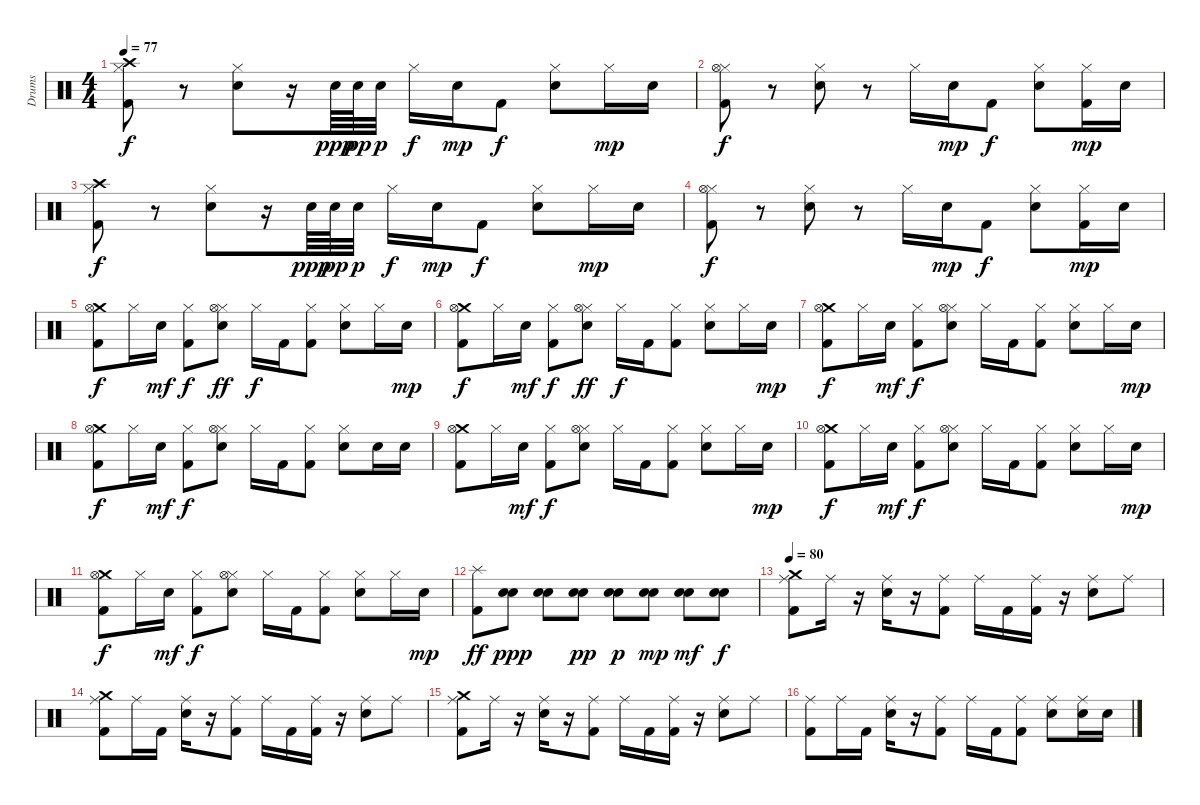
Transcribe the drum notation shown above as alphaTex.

\track ("Drums" "Drums") {instrument percussion}
\staff {score}
\articulation defaults
\ts (4 4)
\tempo 77
\clef neutral
\ks c
("Hi-Hat (closed)" "Crash high (hit)" "Kick (hit) 2").8{dy f} r.8 ("Hi-Hat (closed)" "Electric Snare (hit)").8 r.16 "Electric Snare (hit)".64{dy ppp} "Electric Snare (hit)".64{dy pp} "Electric Snare (hit)".32{dy p} "Hi-Hat (closed)".16{dy f} "Electric Snare (hit)".16{dy mp} "Kick (hit) 2".8{dy f} ("Hi-Hat (closed)" "Electric Snare (hit)").8 "Hi-Hat (closed)".16{dy mp} "Electric Snare (hit)".16 |
("Hi-Hat (closed)" "Hi-Hat (open)" "Kick (hit) 2").8{dy f} r.8 ("Hi-Hat (closed)" "Electric Snare (hit)").8 r.8 "Hi-Hat (closed)".16 "Electric Snare (hit)".16{dy mp} "Kick (hit) 2".8{dy f} ("Hi-Hat (closed)" "Electric Snare (hit)").8 ("Hi-Hat (closed)" "Kick (hit) 2").16{dy mp} "Electric Snare (hit)".16 |
("Hi-Hat (closed)" "Crash high (hit)" "Kick (hit) 2").8{dy f} r.8 ("Hi-Hat (closed)" "Electric Snare (hit)").8 r.16 "Electric Snare (hit)".64{dy ppp} "Electric Snare (hit)".64{dy pp} "Electric Snare (hit)".32{dy p} "Hi-Hat (closed)".16{dy f} "Electric Snare (hit)".16{dy mp} "Kick (hit) 2".8{dy f} ("Hi-Hat (closed)" "Electric Snare (hit)").8 "Hi-Hat (closed)".16{dy mp} "Electric Snare (hit)".16 |
("Hi-Hat (closed)" "Hi-Hat (open)" "Kick (hit) 2").8{dy f} r.8 ("Hi-Hat (closed)" "Electric Snare (hit)").8 r.8 "Hi-Hat (closed)".16 "Electric Snare (hit)".16{dy mp} "Kick (hit) 2".8{dy f} ("Hi-Hat (closed)" "Electric Snare (hit)").8 ("Hi-Hat (closed)" "Kick (hit) 2").16{dy mp} "Electric Snare (hit)".16 |
("Crash medium (hit)" "Hi-Hat (open)" "Kick (hit) 2").8{dy f} "Hi-Hat (closed)".16 "Electric Snare (hit)".16{dy mf} ("Hi-Hat (closed)" "Kick (hit) 2").8{dy f} ("Hi-Hat (closed)" "Hi-Hat (open)" "Electric Snare (hit)").8{dy ff} "Hi-Hat (closed)".16{dy f} "Kick (hit) 2".16 ("Hi-Hat (closed)" "Kick (hit) 2").8 ("Hi-Hat (closed)" "Electric Snare (hit)").8 "Hi-Hat (closed)".16 "Electric Snare (hit)".16{dy mp} |
("Crash medium (hit)" "Hi-Hat (open)" "Kick (hit) 2").8{dy f} "Hi-Hat (closed)".16 "Electric Snare (hit)".16{dy mf} ("Hi-Hat (closed)" "Kick (hit) 2").8{dy f} ("Hi-Hat (closed)" "Hi-Hat (open)" "Electric Snare (hit)").8{dy ff} "Hi-Hat (closed)".16{dy f} "Kick (hit) 2".16 ("Hi-Hat (closed)" "Kick (hit) 2").8 ("Hi-Hat (closed)" "Electric Snare (hit)").8 "Hi-Hat (closed)".16 "Electric Snare (hit)".16{dy mp} |
("Crash medium (hit)" "Hi-Hat (open)" "Kick (hit) 2").8{dy f} "Hi-Hat (closed)".16 "Electric Snare (hit)".16{dy mf} ("Hi-Hat (closed)" "Kick (hit) 2").8{dy f} ("Hi-Hat (closed)" "Hi-Hat (open)" "Electric Snare (hit)").8 "Hi-Hat (closed)".16 "Kick (hit) 2".16 ("Hi-Hat (closed)" "Kick (hit) 2").8 ("Hi-Hat (closed)" "Electric Snare (hit)").8 "Hi-Hat (closed)".16 "Electric Snare (hit)".16{dy mp} |
("Crash medium (hit)" "Hi-Hat (open)" "Kick (hit) 2").8{dy f} "Hi-Hat (closed)".16 "Electric Snare (hit)".16{dy mf} ("Hi-Hat (closed)" "Kick (hit) 2").8{dy f} ("Hi-Hat (closed)" "Hi-Hat (open)" "Electric Snare (hit)").8 "Hi-Hat (closed)".16 "Kick (hit) 2".16 ("Hi-Hat (closed)" "Kick (hit) 2").8 ("Hi-Hat (closed)" "Electric Snare (hit)").8 "Electric Snare (hit)".16 "Electric Snare (hit)".16 |
("Crash medium (hit)" "Hi-Hat (open)" "Kick (hit) 2").8 "Hi-Hat (closed)".16 "Electric Snare (hit)".16{dy mf} ("Hi-Hat (closed)" "Kick (hit) 2").8{dy f} ("Hi-Hat (closed)" "Hi-Hat (open)" "Electric Snare (hit)").8 "Hi-Hat (closed)".16 "Kick (hit) 2".16 ("Hi-Hat (closed)" "Kick (hit) 2").8 ("Hi-Hat (closed)" "Electric Snare (hit)").8 "Hi-Hat (closed)".16 "Electric Snare (hit)".16{dy mp} |
("Crash medium (hit)" "Hi-Hat (open)" "Kick (hit) 2").8{dy f} "Hi-Hat (closed)".16 "Electric Snare (hit)".16{dy mf} ("Hi-Hat (closed)" "Kick (hit) 2").8{dy f} ("Hi-Hat (closed)" "Hi-Hat (open)" "Electric Snare (hit)").8 "Hi-Hat (closed)".16 "Kick (hit) 2".16 ("Hi-Hat (closed)" "Kick (hit) 2").8 ("Hi-Hat (closed)" "Electric Snare (hit)").8 "Hi-Hat (closed)".16 "Electric Snare (hit)".16{dy mp} |
("Crash medium (hit)" "Hi-Hat (open)" "Kick (hit) 2").8{dy f} "Hi-Hat (closed)".16 "Electric Snare (hit)".16{dy mf} ("Hi-Hat (closed)" "Kick (hit) 2").8{dy f} ("Hi-Hat (closed)" "Hi-Hat (open)" "Electric Snare (hit)").8 "Hi-Hat (closed)".16 "Kick (hit) 2".16 ("Hi-Hat (closed)" "Kick (hit) 2").8 ("Hi-Hat (closed)" "Electric Snare (hit)").8 "Hi-Hat (closed)".16 "Electric Snare (hit)".16{dy mp} |
("Splash (hit)" "Kick (hit) 2").8{dy ff} ("Electric Snare (hit)" "Electric Snare (hit)").8{dy ppp} ("Electric Snare (hit)" "Electric Snare (hit)").8 ("Electric Snare (hit)" "Electric Snare (hit)").8{dy pp} ("Electric Snare (hit)" "Electric Snare (hit)").8{dy p} ("Electric Snare (hit)" "Electric Snare (hit)").8{dy mp} ("Electric Snare (hit)" "Electric Snare (hit)").8{dy mf} ("Electric Snare (hit)" "Electric Snare (hit)").8{dy f} |
\tempo 80
("Ride (middle)" "Crash medium (hit)" "Kick (hit) 2").8 "Ride (middle)".16 r.16 ("Ride (middle)" "Electric Snare (hit)").16 r.16 ("Ride (middle)" "Kick (hit) 2").8 "Ride (middle)".16 "Kick (hit) 2".16 ("Ride (middle)" "Kick (hit) 2").16 r.16 ("Ride (middle)" "Electric Snare (hit)").8 "Ride (middle)".8 |
("Ride (middle)" "Crash medium (hit)" "Kick (hit) 2").8 "Ride (middle)".16 "Kick (hit) 2".16 ("Ride (middle)" "Electric Snare (hit)").16 r.16 ("Ride (middle)" "Kick (hit) 2").8 "Ride (middle)".16 "Kick (hit) 2".16 ("Ride (middle)" "Kick (hit) 2").16 r.16 ("Ride (middle)" "Electric Snare (hit)").8 "Ride (middle)".8 |
("Ride (middle)" "Crash medium (hit)" "Kick (hit) 2").8 "Ride (middle)".16 r.16 ("Ride (middle)" "Electric Snare (hit)").16 r.16 ("Ride (middle)" "Kick (hit) 2").8 "Ride (middle)".16 "Kick (hit) 2".16 ("Ride (middle)" "Kick (hit) 2").16 r.16 ("Ride (middle)" "Electric Snare (hit)").8 "Ride (middle)".8 |
("Ride (middle)" "Kick (hit) 2").8 "Ride (middle)".16 "Kick (hit) 2".16 ("Ride (middle)" "Electric Snare (hit)").16 r.16 ("Ride (middle)" "Kick (hit) 2").8 "Ride (middle)".16 "Kick (hit) 2".16 ("Ride (middle)" "Kick (hit) 2").8 ("Ride (middle)" "Electric Snare (hit)").8 ("Ride (middle)" "Electric Snare (hit)").16 "Electric Snare (hit)".16
